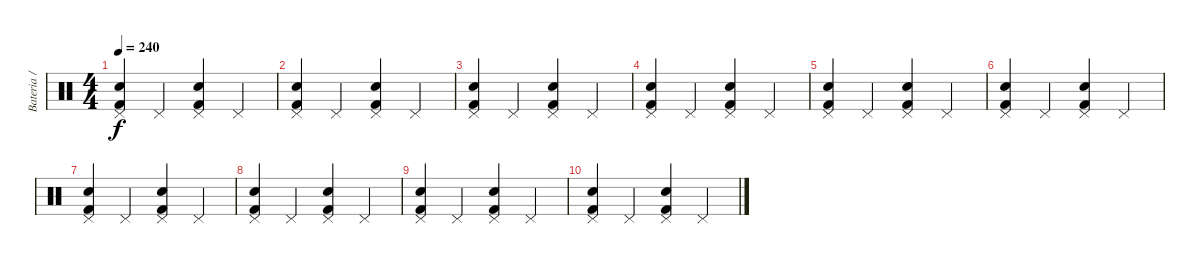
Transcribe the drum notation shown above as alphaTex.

\track ("Bateria / Percusión" "Bateria / ") {instrument percussion}
\staff {score}
\articulation defaults
\ts (4 4)
\tempo 240
\clef neutral
\ks c
("Kick (hit) 2" "Pedal Hi-Hat (hit)" "Snare (hit) 2").4{dy f} "Pedal Hi-Hat (hit)".4 ("Kick (hit) 2" "Pedal Hi-Hat (hit)" "Snare (hit) 2").4 "Pedal Hi-Hat (hit)".4 |
("Kick (hit) 2" "Pedal Hi-Hat (hit)" "Snare (hit) 2").4 "Pedal Hi-Hat (hit)".4 ("Kick (hit) 2" "Pedal Hi-Hat (hit)" "Snare (hit) 2").4 "Pedal Hi-Hat (hit)".4 |
("Kick (hit) 2" "Pedal Hi-Hat (hit)" "Snare (hit) 2").4 "Pedal Hi-Hat (hit)".4 ("Kick (hit) 2" "Pedal Hi-Hat (hit)" "Snare (hit) 2").4 "Pedal Hi-Hat (hit)".4 |
("Kick (hit) 2" "Pedal Hi-Hat (hit)" "Snare (hit) 2").4 "Pedal Hi-Hat (hit)".4 ("Kick (hit) 2" "Pedal Hi-Hat (hit)" "Snare (hit) 2").4 "Pedal Hi-Hat (hit)".4 |
("Kick (hit) 2" "Pedal Hi-Hat (hit)" "Snare (hit) 2").4 "Pedal Hi-Hat (hit)".4 ("Kick (hit) 2" "Pedal Hi-Hat (hit)" "Snare (hit) 2").4 "Pedal Hi-Hat (hit)".4 |
("Kick (hit) 2" "Pedal Hi-Hat (hit)" "Snare (hit) 2").4 "Pedal Hi-Hat (hit)".4 ("Kick (hit) 2" "Pedal Hi-Hat (hit)" "Snare (hit) 2").4 "Pedal Hi-Hat (hit)".4 |
("Kick (hit) 2" "Pedal Hi-Hat (hit)" "Snare (hit) 2").4 "Pedal Hi-Hat (hit)".4 ("Kick (hit) 2" "Pedal Hi-Hat (hit)" "Snare (hit) 2").4 "Pedal Hi-Hat (hit)".4 |
("Kick (hit) 2" "Pedal Hi-Hat (hit)" "Snare (hit) 2").4 "Pedal Hi-Hat (hit)".4 ("Kick (hit) 2" "Pedal Hi-Hat (hit)" "Snare (hit) 2").4 "Pedal Hi-Hat (hit)".4 |
("Kick (hit) 2" "Pedal Hi-Hat (hit)" "Snare (hit) 2").4 "Pedal Hi-Hat (hit)".4 ("Kick (hit) 2" "Pedal Hi-Hat (hit)" "Snare (hit) 2").4 "Pedal Hi-Hat (hit)".4 |
("Kick (hit) 2" "Pedal Hi-Hat (hit)" "Snare (hit) 2").4 "Pedal Hi-Hat (hit)".4 ("Kick (hit) 2" "Pedal Hi-Hat (hit)" "Snare (hit) 2").4 "Pedal Hi-Hat (hit)".4
